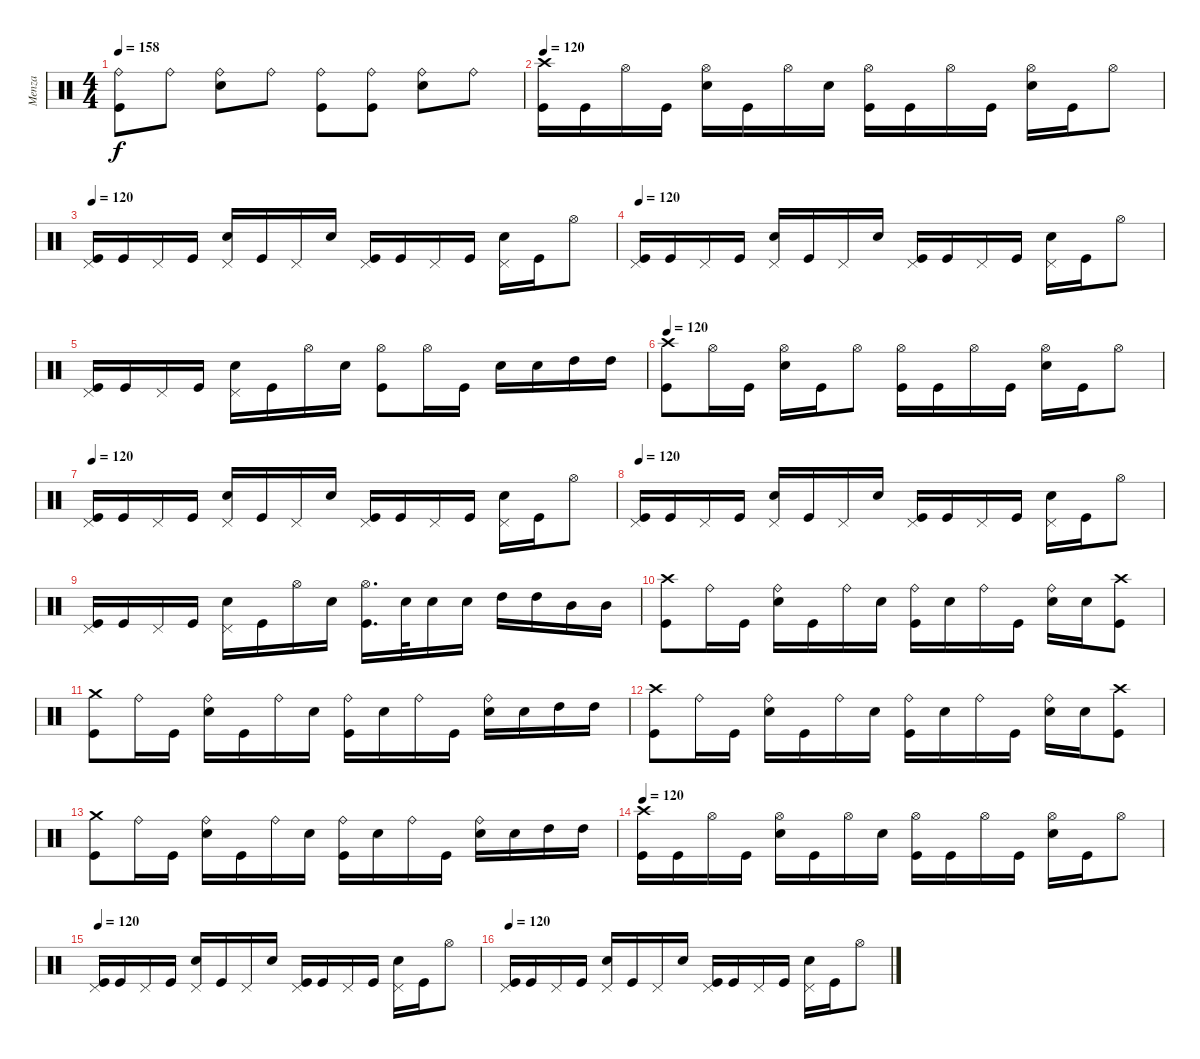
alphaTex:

\track ("Menza" "Menza") {instrument percussion}
\staff {score}
\articulation defaults
\ts (4 4)
\tempo 158
\clef neutral
\ks c
("Ride (bell)" "Kick (hit)").8{dy f} "Ride (bell)".8 ("Ride (bell)" "Snare (hit) 2").8 "Ride (bell)".8 ("Ride (bell)" "Kick (hit)").8 ("Ride (bell)" "Kick (hit)").8 ("Ride (bell)" "Snare (hit) 2").8 "Ride (bell)".8 |
\tempo 120
("Crash high (hit)" "Kick (hit)").16 "Kick (hit)".16 "Hi-Hat (open)".16 "Kick (hit)".16 ("Hi-Hat (open)" "Snare (hit) 2").16 "Kick (hit)".16 "Hi-Hat (open)".16 "Snare (hit) 2".16 ("Hi-Hat (open)" "Kick (hit)").16 "Kick (hit)".16 "Hi-Hat (open)".16 "Kick (hit)".16 ("Hi-Hat (open)" "Snare (hit) 2").16 "Kick (hit)".16 "Hi-Hat (open)".8 |
\tempo 120
("Pedal Hi-Hat (hit)" "Kick (hit)").16 "Kick (hit)".16 "Pedal Hi-Hat (hit)".16 "Kick (hit)".16 ("Pedal Hi-Hat (hit)" "Snare (hit) 2").16 "Kick (hit)".16 "Pedal Hi-Hat (hit)".16 "Snare (hit) 2".16 ("Pedal Hi-Hat (hit)" "Kick (hit)").16 "Kick (hit)".16 "Pedal Hi-Hat (hit)".16 "Kick (hit)".16 ("Pedal Hi-Hat (hit)" "Snare (hit) 2").16 "Kick (hit)".16 "Hi-Hat (open)".8 |
\tempo 120
("Pedal Hi-Hat (hit)" "Kick (hit)").16 "Kick (hit)".16 "Pedal Hi-Hat (hit)".16 "Kick (hit)".16 ("Pedal Hi-Hat (hit)" "Snare (hit) 2").16 "Kick (hit)".16 "Pedal Hi-Hat (hit)".16 "Snare (hit) 2".16 ("Pedal Hi-Hat (hit)" "Kick (hit)").16 "Kick (hit)".16 "Pedal Hi-Hat (hit)".16 "Kick (hit)".16 ("Pedal Hi-Hat (hit)" "Snare (hit) 2").16 "Kick (hit)".16 "Hi-Hat (open)".8 |
("Pedal Hi-Hat (hit)" "Kick (hit)").16 "Kick (hit)".16 "Pedal Hi-Hat (hit)".16 "Kick (hit)".16 ("Pedal Hi-Hat (hit)" "Snare (hit) 2").16 "Kick (hit)".16 "Hi-Hat (open)".16 "Snare (hit) 2".16 ("Hi-Hat (open)" "Kick (hit)").8 "Hi-Hat (open)".16 "Kick (hit)".16 "Snare (hit) 2".16 "Snare (hit) 2".16 "High Tom (hit)".16 "High Tom (hit)".16 |
\tempo 120
("Crash high (hit)" "Kick (hit)").8 "Hi-Hat (open)".16 "Kick (hit)".16 ("Hi-Hat (open)" "Snare (hit) 2").16 "Kick (hit)".16 "Hi-Hat (open)".8 ("Hi-Hat (open)" "Kick (hit)").16 "Kick (hit)".16 "Hi-Hat (open)".16 "Kick (hit)".16 ("Hi-Hat (open)" "Snare (hit) 2").16 "Kick (hit)".16 "Hi-Hat (open)".8 |
\tempo 120
("Pedal Hi-Hat (hit)" "Kick (hit)").16 "Kick (hit)".16 "Pedal Hi-Hat (hit)".16 "Kick (hit)".16 ("Pedal Hi-Hat (hit)" "Snare (hit) 2").16 "Kick (hit)".16 "Pedal Hi-Hat (hit)".16 "Snare (hit) 2".16 ("Pedal Hi-Hat (hit)" "Kick (hit)").16 "Kick (hit)".16 "Pedal Hi-Hat (hit)".16 "Kick (hit)".16 ("Pedal Hi-Hat (hit)" "Snare (hit) 2").16 "Kick (hit)".16 "Hi-Hat (open)".8 |
\tempo 120
("Pedal Hi-Hat (hit)" "Kick (hit)").16 "Kick (hit)".16 "Pedal Hi-Hat (hit)".16 "Kick (hit)".16 ("Pedal Hi-Hat (hit)" "Snare (hit) 2").16 "Kick (hit)".16 "Pedal Hi-Hat (hit)".16 "Snare (hit) 2".16 ("Pedal Hi-Hat (hit)" "Kick (hit)").16 "Kick (hit)".16 "Pedal Hi-Hat (hit)".16 "Kick (hit)".16 ("Pedal Hi-Hat (hit)" "Snare (hit) 2").16 "Kick (hit)".16 "Hi-Hat (open)".8 |
("Pedal Hi-Hat (hit)" "Kick (hit)").16 "Kick (hit)".16 "Pedal Hi-Hat (hit)".16 "Kick (hit)".16 ("Pedal Hi-Hat (hit)" "Snare (hit) 2").16 "Kick (hit)".16 "Hi-Hat (open)".16 "Snare (hit) 2".16 ("Hi-Hat (open)" "Kick (hit)").16{d} "Snare (hit) 2".32 "Snare (hit) 2".16 "Snare (hit) 2".16 "High Tom (hit)".16 "High Tom (hit)".16 "Mid Tom (hit)".16 "Mid Tom (hit)".16 |
("Crash high (hit)" "Kick (hit)").8 "Ride (bell)".16 "Kick (hit)".16 ("Ride (bell)" "Snare (hit) 2").16 "Kick (hit)".16 "Ride (bell)".16 "Snare (hit) 2".16 ("Ride (bell)" "Kick (hit)").16 "Snare (hit) 2".16 "Ride (bell)".16 "Kick (hit)".16 ("Ride (bell)" "Snare (hit) 2").16 "Snare (hit) 2".16 ("Crash high (hit)" "Kick (hit)").8 |
("Crash medium (hit)" "Kick (hit)").8 "Ride (bell)".16 "Kick (hit)".16 ("Ride (bell)" "Snare (hit) 2").16 "Kick (hit)".16 "Ride (bell)".16 "Snare (hit) 2".16 ("Ride (bell)" "Kick (hit)").16 "Snare (hit) 2".16 "Ride (bell)".16 "Kick (hit)".16 ("Ride (bell)" "Snare (hit) 2").16 "Snare (hit) 2".16 "High Tom (hit)".16 "High Tom (hit)".16 |
("Crash high (hit)" "Kick (hit)").8 "Ride (bell)".16 "Kick (hit)".16 ("Ride (bell)" "Snare (hit) 2").16 "Kick (hit)".16 "Ride (bell)".16 "Snare (hit) 2".16 ("Ride (bell)" "Kick (hit)").16 "Snare (hit) 2".16 "Ride (bell)".16 "Kick (hit)".16 ("Ride (bell)" "Snare (hit) 2").16 "Snare (hit) 2".16 ("Crash high (hit)" "Kick (hit)").8 |
("Crash medium (hit)" "Kick (hit)").8 "Ride (bell)".16 "Kick (hit)".16 ("Ride (bell)" "Snare (hit) 2").16 "Kick (hit)".16 "Ride (bell)".16 "Snare (hit) 2".16 ("Ride (bell)" "Kick (hit)").16 "Snare (hit) 2".16 "Ride (bell)".16 "Kick (hit)".16 ("Ride (bell)" "Snare (hit) 2").16 "Snare (hit) 2".16 "High Tom (hit)".16 "High Tom (hit)".16 |
\tempo 120
("Crash high (hit)" "Kick (hit)").16 "Kick (hit)".16 "Hi-Hat (open)".16 "Kick (hit)".16 ("Hi-Hat (open)" "Snare (hit) 2").16 "Kick (hit)".16 "Hi-Hat (open)".16 "Snare (hit) 2".16 ("Hi-Hat (open)" "Kick (hit)").16 "Kick (hit)".16 "Hi-Hat (open)".16 "Kick (hit)".16 ("Hi-Hat (open)" "Snare (hit) 2").16 "Kick (hit)".16 "Hi-Hat (open)".8 |
\tempo 120
("Pedal Hi-Hat (hit)" "Kick (hit)").16 "Kick (hit)".16 "Pedal Hi-Hat (hit)".16 "Kick (hit)".16 ("Pedal Hi-Hat (hit)" "Snare (hit) 2").16 "Kick (hit)".16 "Pedal Hi-Hat (hit)".16 "Snare (hit) 2".16 ("Pedal Hi-Hat (hit)" "Kick (hit)").16 "Kick (hit)".16 "Pedal Hi-Hat (hit)".16 "Kick (hit)".16 ("Pedal Hi-Hat (hit)" "Snare (hit) 2").16 "Kick (hit)".16 "Hi-Hat (open)".8 |
\tempo 120
("Pedal Hi-Hat (hit)" "Kick (hit)").16 "Kick (hit)".16 "Pedal Hi-Hat (hit)".16 "Kick (hit)".16 ("Pedal Hi-Hat (hit)" "Snare (hit) 2").16 "Kick (hit)".16 "Pedal Hi-Hat (hit)".16 "Snare (hit) 2".16 ("Pedal Hi-Hat (hit)" "Kick (hit)").16 "Kick (hit)".16 "Pedal Hi-Hat (hit)".16 "Kick (hit)".16 ("Pedal Hi-Hat (hit)" "Snare (hit) 2").16 "Kick (hit)".16 "Hi-Hat (open)".8
